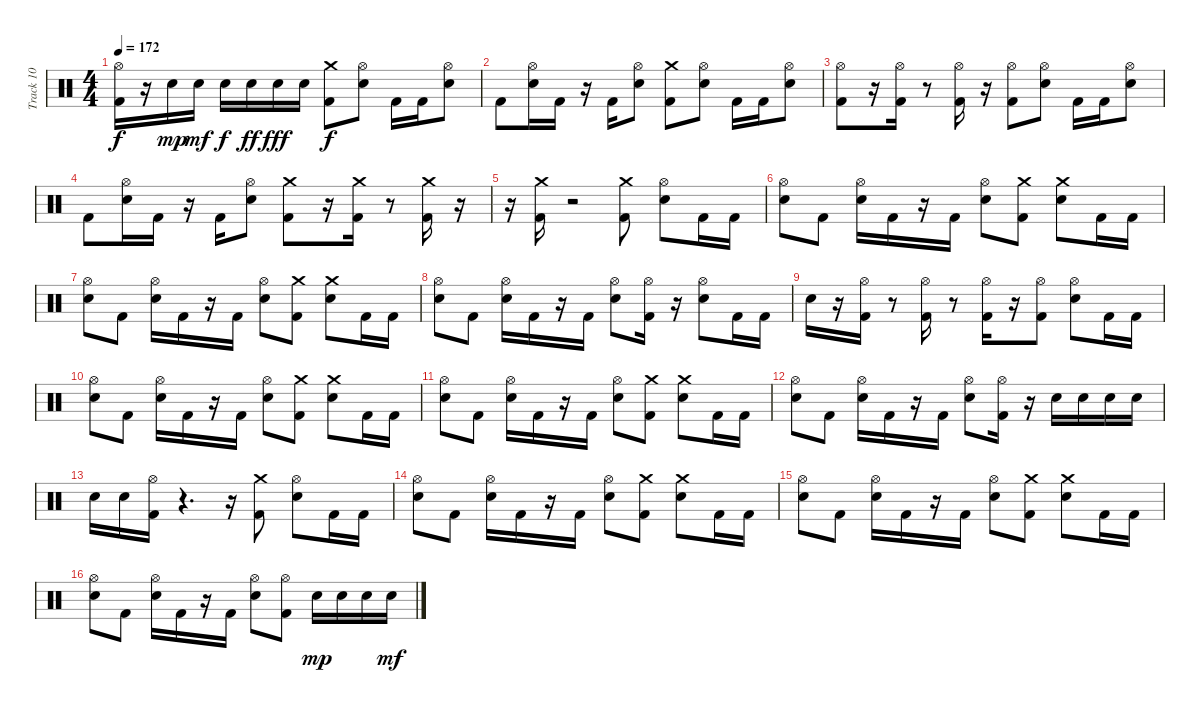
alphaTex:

\track ("Track 10" "Track 10") {instrument percussion}
\staff {score}
\articulation defaults
\ts (4 4)
\tempo 172
\clef neutral
\ks c
("Hi-Hat (open)" "Kick (hit) 2").16{dy f} r.16 "Electric Snare (hit)".16{dy mp} "Electric Snare (hit)".16{dy mf} "Electric Snare (hit)".16{dy f} "Electric Snare (hit)".16{dy ff} "Electric Snare (hit)".16{dy fff} "Electric Snare (hit)".16 ("Crash medium (hit)" "Kick (hit) 2").8{dy f} ("Hi-Hat (open)" "Electric Snare (hit)").8 "Kick (hit) 2".16 "Kick (hit) 2".16 ("Hi-Hat (open)" "Electric Snare (hit)").8 |
"Kick (hit) 2".8 ("Hi-Hat (open)" "Electric Snare (hit)").16 "Kick (hit) 2".16 r.16 "Kick (hit) 2".16 ("Hi-Hat (open)" "Electric Snare (hit)").8 ("Crash medium (hit)" "Kick (hit) 2").8 ("Hi-Hat (open)" "Electric Snare (hit)").8 "Kick (hit) 2".16 "Kick (hit) 2".16 ("Hi-Hat (open)" "Electric Snare (hit)").8 |
("Hi-Hat (open)" "Kick (hit) 2").8 r.16 ("Hi-Hat (open)" "Kick (hit) 2").16 r.8 ("Hi-Hat (open)" "Kick (hit) 2").16 r.16 ("Hi-Hat (open)" "Kick (hit) 2").8 ("Hi-Hat (open)" "Electric Snare (hit)").8 "Kick (hit) 2".16 "Kick (hit) 2".16 ("Hi-Hat (open)" "Electric Snare (hit)").8 |
"Kick (hit) 2".8 ("Hi-Hat (open)" "Electric Snare (hit)").16 "Kick (hit) 2".16 r.16 "Kick (hit) 2".16 ("Hi-Hat (open)" "Electric Snare (hit)").8 ("Crash medium (hit)" "Kick (hit) 2").8 r.16 ("Crash medium (hit)" "Kick (hit) 2").16 r.8 ("Crash medium (hit)" "Kick (hit) 2").16 r.16 |
r.16 ("Crash medium (hit)" "Kick (hit) 2").16 r.2 ("Crash medium (hit)" "Kick (hit) 2").8 ("Hi-Hat (open)" "Electric Snare (hit)").8 "Kick (hit) 2".16 "Kick (hit) 2".16 |
("Hi-Hat (open)" "Electric Snare (hit)").8 "Kick (hit) 2".8 ("Hi-Hat (open)" "Electric Snare (hit)").16 "Kick (hit) 2".16 r.16 "Kick (hit) 2".16 ("Hi-Hat (open)" "Electric Snare (hit)").8 ("Crash medium (hit)" "Kick (hit) 2").8 ("Crash medium (hit)" "Electric Snare (hit)").8 "Kick (hit) 2".16 "Kick (hit) 2".16 |
("Hi-Hat (open)" "Electric Snare (hit)").8 "Kick (hit) 2".8 ("Hi-Hat (open)" "Electric Snare (hit)").16 "Kick (hit) 2".16 r.16 "Kick (hit) 2".16 ("Hi-Hat (open)" "Electric Snare (hit)").8 ("Crash medium (hit)" "Kick (hit) 2").8 ("Crash medium (hit)" "Electric Snare (hit)").8 "Kick (hit) 2".16 "Kick (hit) 2".16 |
("Hi-Hat (open)" "Electric Snare (hit)").8 "Kick (hit) 2".8 ("Hi-Hat (open)" "Electric Snare (hit)").16 "Kick (hit) 2".16 r.16 "Kick (hit) 2".16 ("Hi-Hat (open)" "Electric Snare (hit)").8 ("Hi-Hat (open)" "Kick (hit) 2").16 r.16 ("Hi-Hat (open)" "Electric Snare (hit)").8 "Kick (hit) 2".16 "Kick (hit) 2".16 |
"Electric Snare (hit)".16 r.16 ("Hi-Hat (open)" "Kick (hit) 2").16 r.8 ("Hi-Hat (open)" "Kick (hit) 2").16 r.8 ("Hi-Hat (open)" "Kick (hit) 2").16 r.16 ("Hi-Hat (open)" "Kick (hit) 2").8 ("Hi-Hat (open)" "Electric Snare (hit)").8 "Kick (hit) 2".16 "Kick (hit) 2".16 |
("Hi-Hat (open)" "Electric Snare (hit)").8 "Kick (hit) 2".8 ("Hi-Hat (open)" "Electric Snare (hit)").16 "Kick (hit) 2".16 r.16 "Kick (hit) 2".16 ("Hi-Hat (open)" "Electric Snare (hit)").8 ("Crash medium (hit)" "Kick (hit) 2").8 ("Crash medium (hit)" "Electric Snare (hit)").8 "Kick (hit) 2".16 "Kick (hit) 2".16 |
("Hi-Hat (open)" "Electric Snare (hit)").8 "Kick (hit) 2".8 ("Hi-Hat (open)" "Electric Snare (hit)").16 "Kick (hit) 2".16 r.16 "Kick (hit) 2".16 ("Hi-Hat (open)" "Electric Snare (hit)").8 ("Crash medium (hit)" "Kick (hit) 2").8 ("Crash medium (hit)" "Electric Snare (hit)").8 "Kick (hit) 2".16 "Kick (hit) 2".16 |
("Hi-Hat (open)" "Electric Snare (hit)").8 "Kick (hit) 2".8 ("Hi-Hat (open)" "Electric Snare (hit)").16 "Kick (hit) 2".16 r.16 "Kick (hit) 2".16 ("Hi-Hat (open)" "Electric Snare (hit)").8 ("Hi-Hat (open)" "Kick (hit) 2").16 r.16 "Electric Snare (hit)".16 "Electric Snare (hit)".16 "Electric Snare (hit)".16 "Electric Snare (hit)".16 |
"Electric Snare (hit)".16 "Electric Snare (hit)".16 ("Hi-Hat (open)" "Kick (hit) 2").16 r.4{d} r.16 ("Crash medium (hit)" "Kick (hit) 2").8 ("Hi-Hat (open)" "Electric Snare (hit)").8 "Kick (hit) 2".16 "Kick (hit) 2".16 |
("Hi-Hat (open)" "Electric Snare (hit)").8 "Kick (hit) 2".8 ("Hi-Hat (open)" "Electric Snare (hit)").16 "Kick (hit) 2".16 r.16 "Kick (hit) 2".16 ("Hi-Hat (open)" "Electric Snare (hit)").8 ("Crash medium (hit)" "Kick (hit) 2").8 ("Crash medium (hit)" "Electric Snare (hit)").8 "Kick (hit) 2".16 "Kick (hit) 2".16 |
("Hi-Hat (open)" "Electric Snare (hit)").8 "Kick (hit) 2".8 ("Hi-Hat (open)" "Electric Snare (hit)").16 "Kick (hit) 2".16 r.16 "Kick (hit) 2".16 ("Hi-Hat (open)" "Electric Snare (hit)").8 ("Crash medium (hit)" "Kick (hit) 2").8 ("Crash medium (hit)" "Electric Snare (hit)").8 "Kick (hit) 2".16 "Kick (hit) 2".16 |
("Hi-Hat (open)" "Electric Snare (hit)").8 "Kick (hit) 2".8 ("Hi-Hat (open)" "Electric Snare (hit)").16 "Kick (hit) 2".16 r.16 "Kick (hit) 2".16 ("Hi-Hat (open)" "Electric Snare (hit)").8 ("Hi-Hat (open)" "Kick (hit) 2").8 "Electric Snare (hit)".16{dy mp} "Electric Snare (hit)".16 "Electric Snare (hit)".16 "Electric Snare (hit)".16{dy mf}
